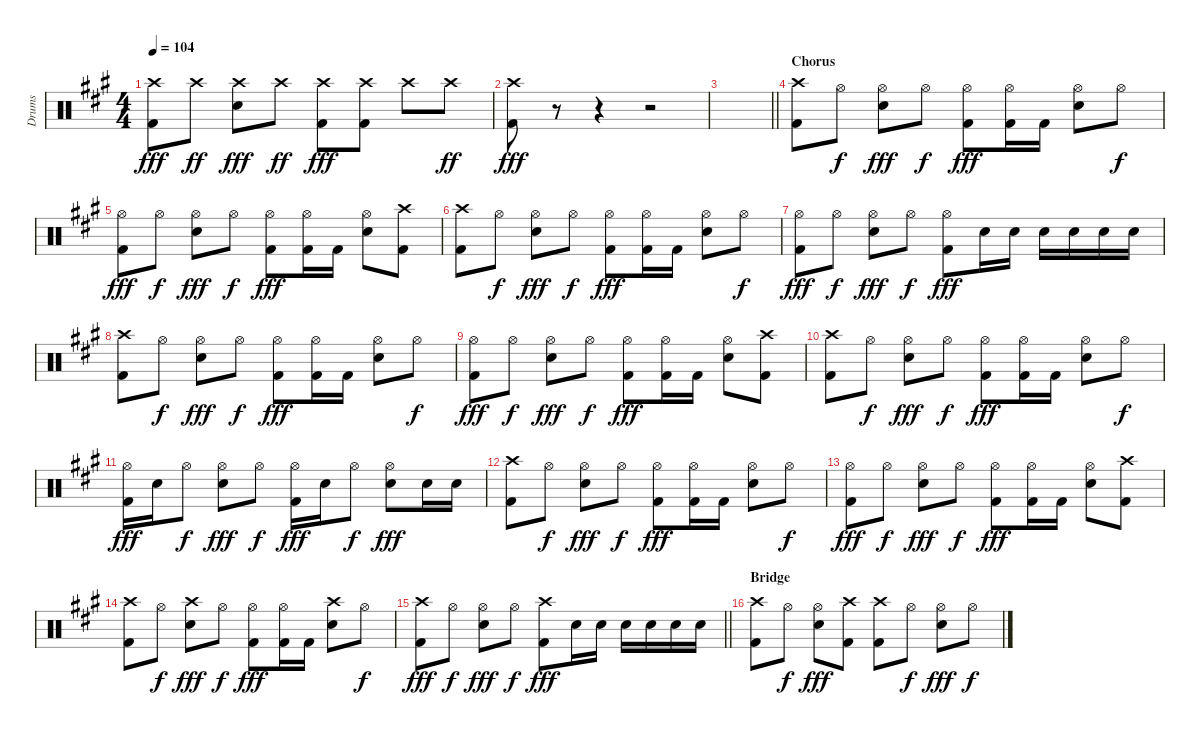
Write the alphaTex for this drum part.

\track ("Drums" "Drums") {instrument percussion}
\staff {score}
\articulation defaults
\ts (4 4)
\tempo 104
\clef neutral
\ks a
("Crash high (hit)" "Kick (hit) 2").8{dy fff} "Crash high (hit)".8{dy ff} ("Crash high (hit)" "Snare (hit) 2").8{dy fff} "Crash high (hit)".8{dy ff} ("Crash high (hit)" "Kick (hit) 2").8{dy fff} ("Crash high (hit)" "Kick (hit) 2").8 "Crash high (hit)".8 "Crash high (hit)".8{dy ff} |
("Crash high (hit)" "Kick (hit) 2").8{dy fff} r.8 r.4 r.2 |
\barLineRight lightlight
|
\section ("" "Chorus")
("Crash high (hit)" "Kick (hit) 2").8 "Hi-Hat (open)".8{dy f} ("Hi-Hat (open)" "Snare (hit) 2").8{dy fff} "Hi-Hat (open)".8{dy f} ("Hi-Hat (open)" "Kick (hit) 2").8{dy fff} ("Hi-Hat (open)" "Kick (hit) 2").16 "Kick (hit) 2".16 ("Hi-Hat (open)" "Snare (hit) 2").8 "Hi-Hat (open)".8{dy f} |
("Hi-Hat (open)" "Kick (hit) 2").8{dy fff} "Hi-Hat (open)".8{dy f} ("Hi-Hat (open)" "Snare (hit) 2").8{dy fff} "Hi-Hat (open)".8{dy f} ("Hi-Hat (open)" "Kick (hit) 2").8{dy fff} ("Hi-Hat (open)" "Kick (hit) 2").16 "Kick (hit) 2".16 ("Hi-Hat (open)" "Snare (hit) 2").8 ("Crash high (hit)" "Kick (hit) 2").8 |
("Crash high (hit)" "Kick (hit) 2").8 "Hi-Hat (open)".8{dy f} ("Hi-Hat (open)" "Snare (hit) 2").8{dy fff} "Hi-Hat (open)".8{dy f} ("Hi-Hat (open)" "Kick (hit) 2").8{dy fff} ("Hi-Hat (open)" "Kick (hit) 2").16 "Kick (hit) 2".16 ("Hi-Hat (open)" "Snare (hit) 2").8 "Hi-Hat (open)".8{dy f} |
("Hi-Hat (open)" "Kick (hit) 2").8{dy fff} "Hi-Hat (open)".8{dy f} ("Hi-Hat (open)" "Snare (hit) 2").8{dy fff} "Hi-Hat (open)".8{dy f} ("Hi-Hat (open)" "Kick (hit) 2").8{dy fff} "Snare (hit) 2".16 "Snare (hit) 2".16 "Snare (hit) 2".16 "Snare (hit) 2".16 "Snare (hit) 2".16 "Snare (hit) 2".16 |
("Crash high (hit)" "Kick (hit) 2").8 "Hi-Hat (open)".8{dy f} ("Hi-Hat (open)" "Snare (hit) 2").8{dy fff} "Hi-Hat (open)".8{dy f} ("Hi-Hat (open)" "Kick (hit) 2").8{dy fff} ("Hi-Hat (open)" "Kick (hit) 2").16 "Kick (hit) 2".16 ("Hi-Hat (open)" "Snare (hit) 2").8 "Hi-Hat (open)".8{dy f} |
("Hi-Hat (open)" "Kick (hit) 2").8{dy fff} "Hi-Hat (open)".8{dy f} ("Hi-Hat (open)" "Snare (hit) 2").8{dy fff} "Hi-Hat (open)".8{dy f} ("Hi-Hat (open)" "Kick (hit) 2").8{dy fff} ("Hi-Hat (open)" "Kick (hit) 2").16 "Kick (hit) 2".16 ("Hi-Hat (open)" "Snare (hit) 2").8 ("Crash high (hit)" "Kick (hit) 2").8 |
("Crash high (hit)" "Kick (hit) 2").8 "Hi-Hat (open)".8{dy f} ("Hi-Hat (open)" "Snare (hit) 2").8{dy fff} "Hi-Hat (open)".8{dy f} ("Hi-Hat (open)" "Kick (hit) 2").8{dy fff} ("Hi-Hat (open)" "Kick (hit) 2").16 "Kick (hit) 2".16 ("Hi-Hat (open)" "Snare (hit) 2").8 "Hi-Hat (open)".8{dy f} |
("Hi-Hat (open)" "Kick (hit) 2").16{dy fff} "Snare (hit) 2".16 "Hi-Hat (open)".8{dy f} ("Hi-Hat (open)" "Snare (hit) 2").8{dy fff} "Hi-Hat (open)".8{dy f} ("Hi-Hat (open)" "Kick (hit) 2").16{dy fff} "Snare (hit) 2".16 "Hi-Hat (open)".8{dy f} ("Hi-Hat (open)" "Snare (hit) 2").8{dy fff} "Snare (hit) 2".16 "Snare (hit) 2".16 |
("Crash high (hit)" "Kick (hit) 2").8 "Hi-Hat (open)".8{dy f} ("Hi-Hat (open)" "Snare (hit) 2").8{dy fff} "Hi-Hat (open)".8{dy f} ("Hi-Hat (open)" "Kick (hit) 2").8{dy fff} ("Hi-Hat (open)" "Kick (hit) 2").16 "Kick (hit) 2".16 ("Hi-Hat (open)" "Snare (hit) 2").8 "Hi-Hat (open)".8{dy f} |
("Hi-Hat (open)" "Kick (hit) 2").8{dy fff} "Hi-Hat (open)".8{dy f} ("Hi-Hat (open)" "Snare (hit) 2").8{dy fff} "Hi-Hat (open)".8{dy f} ("Hi-Hat (open)" "Kick (hit) 2").8{dy fff} ("Hi-Hat (open)" "Kick (hit) 2").16 "Kick (hit) 2".16 ("Hi-Hat (open)" "Snare (hit) 2").8 ("Crash high (hit)" "Kick (hit) 2").8 |
("Crash high (hit)" "Kick (hit) 2").8 "Hi-Hat (open)".8{dy f} ("Crash high (hit)" "Snare (hit) 2").8{dy fff} "Hi-Hat (open)".8{dy f} ("Hi-Hat (open)" "Kick (hit) 2").8{dy fff} ("Hi-Hat (open)" "Kick (hit) 2").16 "Kick (hit) 2".16 ("Crash high (hit)" "Snare (hit) 2").8 "Hi-Hat (open)".8{dy f} |
\barLineRight lightlight
("Crash high (hit)" "Kick (hit) 2").8{dy fff} "Hi-Hat (open)".8{dy f} ("Hi-Hat (open)" "Snare (hit) 2").8{dy fff} "Hi-Hat (open)".8{dy f} ("Crash high (hit)" "Kick (hit) 2").8{dy fff} "Snare (hit) 2".16 "Snare (hit) 2".16 "Snare (hit) 2".16 "Snare (hit) 2".16 "Snare (hit) 2".16 "Snare (hit) 2".16 |
\section ("" "Bridge")
("Crash high (hit)" "Kick (hit) 2").8 "Hi-Hat (open)".8{dy f} ("Hi-Hat (open)" "Snare (hit) 2").8{dy fff} ("Crash high (hit)" "Kick (hit) 2").8 ("Crash high (hit)" "Kick (hit) 2").8 "Hi-Hat (open)".8{dy f} ("Hi-Hat (open)" "Snare (hit) 2").8{dy fff} "Hi-Hat (open)".8{dy f}
